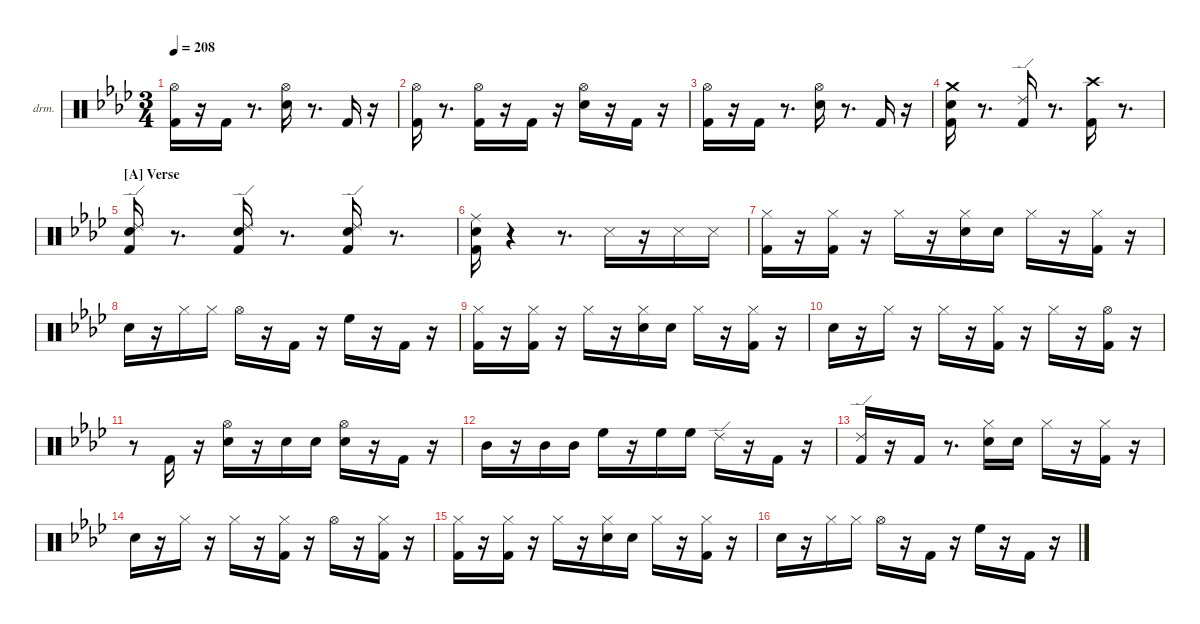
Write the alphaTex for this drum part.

\hideDynamics
\bracketExtendMode nobrackets
\firstSystemTrackNameOrientation horizontal
\otherSystemsTrackNameOrientation horizontal
\track ("EZdrummer 3" "drm.") {instrument percussion}
\staff {score}
\articulation defaults
\ts (3 4)
\tempo 208
\clef neutral
\ks fminor
("Kick (hit) 2"{acc forcenatural} "Hi-Hat (open)"{acc b}).16{dy mf beam Down} r.16{beam Down} "Kick (hit) 2"{acc forcenatural}.16{dy fff beam Up} r.8{d beam Up} ("Snare (hit) 2"{acc forcenatural} "Hi-Hat (open)"{acc b}).16{dy ff beam Down} r.8{d beam Down} "Kick (hit) 2"{acc forcenatural}.16{dy mf beam Up} r.16{beam Up} |
("Kick (hit) 2"{acc forcenatural} "Hi-Hat (open)"{acc b}).16{dy fff beam Down} r.8{d beam Down} ("Kick (hit) 2"{acc forcenatural} "Hi-Hat (open)"{acc b}).16{dy mf beam Down} r.16{beam Down} "Kick (hit) 2"{acc forcenatural}.16{dy ff beam Up} r.16{beam Up} ("Snare (hit) 2"{acc forcenatural} "Hi-Hat (open)"{acc b}).16{beam Down} r.16{beam Down} "Kick (hit) 2"{acc forcenatural}.16{dy mp beam Up} r.16{beam Up} |
("Kick (hit) 2"{acc forcenatural} "Hi-Hat (open)"{acc b}).16{dy fff beam Down} r.16{beam Down} "Kick (hit) 2"{acc forcenatural}.16{dy mf beam Up} r.8{d beam Up} ("Snare (hit) 2"{acc forcenatural} "Hi-Hat (open)"{acc b}).16{dy ff beam Down} r.8{d beam Down} "Kick (hit) 2"{acc forcenatural}.16{dy mf beam Up} r.16{beam Up} |
("Kick (hit) 2"{acc forcenatural} "Snare (hit) 2"{acc forcenatural} "Crash medium (hit)"{acc forcenatural}).16{dy fff beam Down} r.8{d beam Down} ("Kick (hit) 2"{acc forcenatural} "Ride (edge) 2"{acc forcenatural}).16{dy f beam Up} r.8{d beam Up} ("Kick (hit) 2"{acc forcenatural} "Crash high (hit)"{acc b}).16{dy ff beam Down} r.8{d beam Down} |
\section ("A" "Verse")
("Kick (hit) 2"{acc forcenatural} "Snare (hit) 2"{acc forcenatural} "Ride (edge) 2"{acc forcenatural}).16{dy fff beam Up} r.8{d beam Up} ("Kick (hit) 2"{acc forcenatural} "Snare (hit) 2"{acc forcenatural} "Ride (edge) 2"{acc forcenatural}).16{dy mf beam Up} r.8{d beam Up} ("Kick (hit) 2"{acc forcenatural} "Snare (hit) 2"{acc forcenatural} "Ride (edge) 2"{acc forcenatural}).16{dy f beam Up} r.8{d beam Up} |
("Kick (hit) 2"{acc forcenatural} "Snare (hit) 2"{acc forcenatural} "Ride (middle)"{acc b}).16{dy fff beam Down} r.4{beam Down} r.8{d beam Down} "Snare (side stick) 3"{acc b}.16{dy f beam Down} r.16{beam Down} "Snare (side stick) 3"{acc b}.16{dy mp beam Down} "Snare (side stick) 3"{acc b}.16{dy pp beam Down} |
("Kick (hit) 2"{acc forcenatural} "Hi-Hat (closed)"{acc b}).16{dy mf beam Down} r.16{beam Down} ("Kick (hit) 2"{acc forcenatural} "Hi-Hat (closed)"{acc b}).16{dy ff beam Down} r.16{beam Down} "Hi-Hat (closed)"{acc b}.16{dy pp beam Down} r.16{beam Down} ("Snare (hit) 2"{acc forcenatural} "Hi-Hat (closed)"{acc b}).16{dy mf beam Down} "Snare (hit) 2"{acc forcenatural}.16{dy ppp beam Down} "Hi-Hat (closed)"{acc b}.16{dy mf beam Down} r.16{beam Down} ("Kick (hit) 2"{acc forcenatural} "Hi-Hat (closed)"{acc b}).16{dy ff beam Down} r.16{beam Down} |
"Snare (hit) 2"{acc forcenatural}.16{dy fff beam Down} r.16{beam Down} "Hi-Hat (closed)"{acc b}.16{dy f beam Down} "Hi-Hat (closed)"{acc b}.16{dy mf beam Down} "Hi-Hat (open)"{acc b}.16{dy fff beam Down} r.16{beam Down} "Kick (hit) 2"{acc forcenatural}.16{dy ff beam Up} r.16{beam Up} "High Floor Tom (hit)"{acc forcenatural}.16{dy f beam Down} r.16{beam Down} "Kick (hit) 2"{acc forcenatural}.16{dy mf beam Up} r.16{beam Up} |
("Kick (hit) 2"{acc forcenatural} "Hi-Hat (closed)"{acc b}).16{dy fff beam Down} r.16{beam Down} ("Kick (hit) 2"{acc forcenatural} "Hi-Hat (closed)"{acc b}).16{dy mf beam Down} r.16{beam Down} "Hi-Hat (closed)"{acc b}.16{dy pp beam Down} r.16{beam Down} ("Snare (hit) 2"{acc forcenatural} "Hi-Hat (closed)"{acc b}).16{dy mf beam Down} "Snare (hit) 2"{acc forcenatural}.16{dy ppp beam Down} "Hi-Hat (closed)"{acc b}.16{dy mf beam Down} r.16{beam Down} ("Kick (hit) 2"{acc forcenatural} "Hi-Hat (closed)"{acc b}).16{dy ff beam Down} r.16{beam Down} |
"Snare (hit) 2"{acc forcenatural}.16{dy fff beam Down} r.16{beam Down} "Hi-Hat (closed)"{acc b}.16{dy mf beam Down} r.16{beam Down} "Hi-Hat (closed)"{acc b}.16{dy fff beam Down} r.16{beam Down} ("Kick (hit) 2"{acc forcenatural} "Hi-Hat (closed)"{acc b}).16{dy ff beam Down} r.16{beam Down} "Hi-Hat (closed)"{acc b}.16{dy fff beam Down} r.16{beam Down} ("Kick (hit) 2"{acc forcenatural} "Hi-Hat (open)"{acc b}).16{dy f beam Down} r.16{beam Down} |
r.8{beam Down} "Kick (hit) 2"{acc forcenatural}.16{dy mf beam Up} r.16{beam Up} ("Snare (hit) 2"{acc forcenatural} "Hi-Hat (open)"{acc b}).16{dy ff beam Down} r.16{beam Down} "Snare (hit) 2"{acc forcenatural}.16{dy pp beam Down} "Snare (hit) 2"{acc forcenatural}.16{dy ppp beam Down} ("Snare (hit) 2"{acc forcenatural} "Hi-Hat (open)"{acc b}).16{dy fff beam Down} r.16{beam Down} "Kick (hit) 2"{acc forcenatural}.16{dy ff beam Up} r.16{beam Up} |
"Mid Tom (hit)"{acc forcenatural}.16{beam Down} r.16{beam Down} "Mid Tom (hit)"{acc forcenatural}.16{beam Up} "Mid Tom (hit)"{acc forcenatural}.16{dy f beam Up} "High Floor Tom (hit)"{acc forcenatural}.16{dy ff beam Down} r.16{beam Down} "High Floor Tom (hit)"{acc forcenatural}.16{beam Down} "High Floor Tom (hit)"{acc forcenatural}.16{dy f beam Down} "Ride (edge) 2"{acc forcenatural}.16{dy mf beam Down} r.16{beam Down} "Kick (hit) 2"{acc forcenatural}.16{dy mp beam Up} r.16{beam Up} |
("Kick (hit) 2"{acc forcenatural} "Ride (edge) 2"{acc forcenatural}).16{dy fff beam Up} r.16{beam Up} "Kick (hit) 2"{acc forcenatural}.16{dy mp beam Up} r.8{d beam Up} ("Snare (hit) 2"{acc forcenatural} "Hi-Hat (closed)"{acc b}).16{dy mf beam Down} "Snare (hit) 2"{acc forcenatural}.16{dy ppp beam Down} "Hi-Hat (closed)"{acc b}.16{dy mf beam Down} r.16{beam Down} ("Kick (hit) 2"{acc forcenatural} "Hi-Hat (closed)"{acc b}).16{dy ff beam Down} r.16{beam Down} |
"Snare (hit) 2"{acc forcenatural}.16{dy fff beam Down} r.16{beam Down} "Hi-Hat (closed)"{acc b}.16{dy mf beam Down} r.16{beam Down} "Hi-Hat (closed)"{acc b}.16{dy fff beam Down} r.16{beam Down} ("Kick (hit) 2"{acc forcenatural} "Hi-Hat (closed)"{acc b}).16{dy ff beam Down} r.16{beam Down} "Hi-Hat (open)"{acc b}.16{beam Down} r.16{beam Down} ("Kick (hit) 2"{acc forcenatural} "Hi-Hat (closed)"{acc b}).16{dy mp beam Down} r.16{beam Down} |
("Kick (hit) 2"{acc forcenatural} "Hi-Hat (closed)"{acc b}).16{dy ff beam Down} r.16{beam Down} ("Kick (hit) 2"{acc forcenatural} "Hi-Hat (closed)"{acc b}).16{dy mp beam Down} r.16{beam Down} "Hi-Hat (closed)"{acc b}.16{dy pp beam Down} r.16{beam Down} ("Snare (hit) 2"{acc forcenatural} "Hi-Hat (closed)"{acc b}).16{dy mf beam Down} "Snare (hit) 2"{acc forcenatural}.16{dy ppp beam Down} "Hi-Hat (closed)"{acc b}.16{dy mf beam Down} r.16{beam Down} ("Kick (hit) 2"{acc forcenatural} "Hi-Hat (closed)"{acc b}).16{dy ff beam Down} r.16{beam Down} |
"Snare (hit) 2"{acc forcenatural}.16{dy fff beam Down} r.16{beam Down} "Hi-Hat (closed)"{acc b}.16{dy f beam Down} "Hi-Hat (closed)"{acc b}.16{dy mf beam Down} "Hi-Hat (open)"{acc b}.16{dy fff beam Down} r.16{beam Down} "Kick (hit) 2"{acc forcenatural}.16{dy ff beam Up} r.16{beam Up} "High Floor Tom (hit)"{acc forcenatural}.16{dy f beam Down} r.16{beam Down} "Kick (hit) 2"{acc forcenatural}.16{dy mp beam Up} r.16{beam Up}
